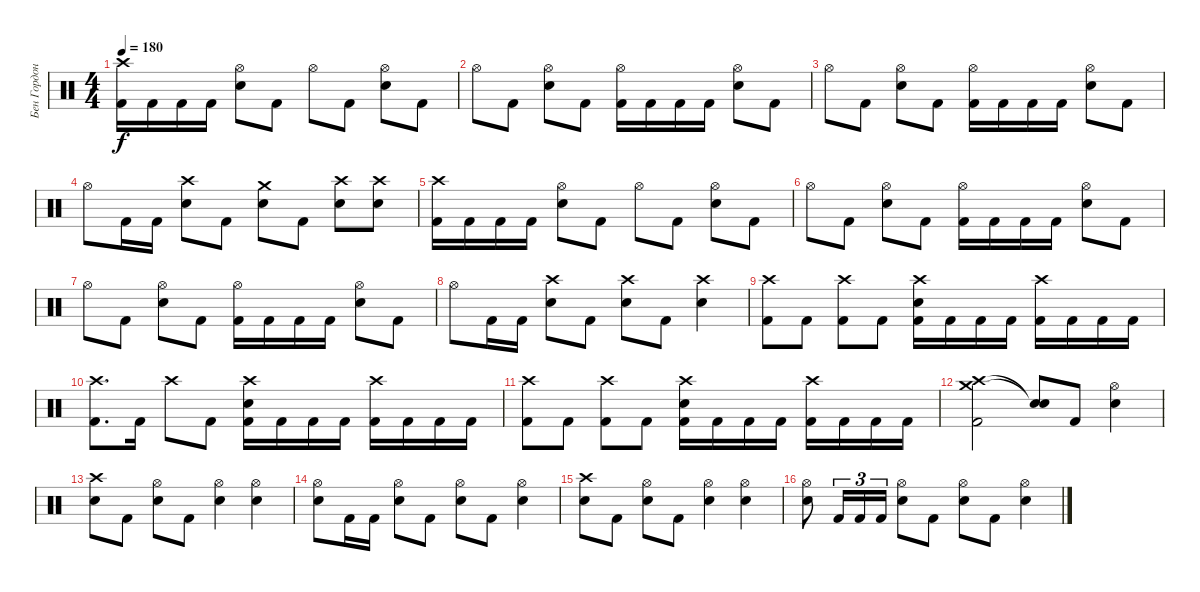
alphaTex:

\track ("Бен Гордон" "Бен Гордон") {instrument percussion}
\staff {score}
\articulation defaults
\ts (4 4)
\tempo 180
\clef neutral
\ks c
("Crash high (hit)" "Kick (hit) 2").16{dy f} "Kick (hit) 2".16 "Kick (hit) 2".16 "Kick (hit) 2".16 ("Hi-Hat (open)" "Electric Snare (hit)").8 "Kick (hit) 2".8 "Hi-Hat (open)".8 "Kick (hit) 2".8 ("Hi-Hat (open)" "Electric Snare (hit)").8 "Kick (hit) 2".8 |
"Hi-Hat (open)".8 "Kick (hit) 2".8 ("Hi-Hat (open)" "Electric Snare (hit)").8 "Kick (hit) 2".8 ("Hi-Hat (open)" "Kick (hit) 2").16 "Kick (hit) 2".16 "Kick (hit) 2".16 "Kick (hit) 2".16 ("Hi-Hat (open)" "Electric Snare (hit)").8 "Kick (hit) 2".8 |
"Hi-Hat (open)".8 "Kick (hit) 2".8 ("Hi-Hat (open)" "Electric Snare (hit)").8 "Kick (hit) 2".8 ("Hi-Hat (open)" "Kick (hit) 2").16 "Kick (hit) 2".16 "Kick (hit) 2".16 "Kick (hit) 2".16 ("Hi-Hat (open)" "Electric Snare (hit)").8 "Kick (hit) 2".8 |
"Hi-Hat (open)".8 "Kick (hit) 2".16 "Kick (hit) 2".16 ("Crash high (hit)" "Electric Snare (hit)").8 "Kick (hit) 2".8 ("Crash medium (hit)" "Electric Snare (hit)").8 "Kick (hit) 2".8 ("Crash high (hit)" "Electric Snare (hit)").8 ("Crash high (hit)" "Electric Snare (hit)").8 |
("Crash high (hit)" "Kick (hit) 2").16 "Kick (hit) 2".16 "Kick (hit) 2".16 "Kick (hit) 2".16 ("Hi-Hat (open)" "Electric Snare (hit)").8 "Kick (hit) 2".8 "Hi-Hat (open)".8 "Kick (hit) 2".8 ("Hi-Hat (open)" "Electric Snare (hit)").8 "Kick (hit) 2".8 |
"Hi-Hat (open)".8 "Kick (hit) 2".8 ("Hi-Hat (open)" "Electric Snare (hit)").8 "Kick (hit) 2".8 ("Hi-Hat (open)" "Kick (hit) 2").16 "Kick (hit) 2".16 "Kick (hit) 2".16 "Kick (hit) 2".16 ("Hi-Hat (open)" "Electric Snare (hit)").8 "Kick (hit) 2".8 |
"Hi-Hat (open)".8 "Kick (hit) 2".8 ("Hi-Hat (open)" "Electric Snare (hit)").8 "Kick (hit) 2".8 ("Hi-Hat (open)" "Kick (hit) 2").16 "Kick (hit) 2".16 "Kick (hit) 2".16 "Kick (hit) 2".16 ("Hi-Hat (open)" "Electric Snare (hit)").8 "Kick (hit) 2".8 |
"Hi-Hat (open)".8 "Kick (hit) 2".16 "Kick (hit) 2".16 ("Crash high (hit)" "Electric Snare (hit)").8 "Kick (hit) 2".8 ("Crash high (hit)" "Electric Snare (hit)").8 "Kick (hit) 2".8 ("Crash high (hit)" "Electric Snare (hit)").4 |
("Crash high (hit)" "Kick (hit) 2").8 "Kick (hit) 2".8 ("Crash high (hit)" "Kick (hit) 2").8 "Kick (hit) 2".8 ("Crash high (hit)" "Electric Snare (hit)" "Kick (hit) 2").16 "Kick (hit) 2".16 "Kick (hit) 2".16 "Kick (hit) 2".16 ("Crash high (hit)" "Kick (hit) 2").16 "Kick (hit) 2".16 "Kick (hit) 2".16 "Kick (hit) 2".16 |
("Crash high (hit)" "Kick (hit) 2").8{d} "Kick (hit) 2".16 "Crash high (hit)".8 "Kick (hit) 2".8 ("Crash high (hit)" "Electric Snare (hit)" "Kick (hit) 2").16 "Kick (hit) 2".16 "Kick (hit) 2".16 "Kick (hit) 2".16 ("Crash high (hit)" "Kick (hit) 2").16 "Kick (hit) 2".16 "Kick (hit) 2".16 "Kick (hit) 2".16 |
("Crash high (hit)" "Kick (hit) 2").8 "Kick (hit) 2".8 ("Crash high (hit)" "Kick (hit) 2").8 "Kick (hit) 2".8 ("Crash high (hit)" "Electric Snare (hit)" "Kick (hit) 2").16 "Kick (hit) 2".16 "Kick (hit) 2".16 "Kick (hit) 2".16 ("Crash high (hit)" "Kick (hit) 2").16 "Kick (hit) 2".16 "Kick (hit) 2".16 "Kick (hit) 2".16 |
("Crash medium (hit)" "Crash high (hit)" "Kick (hit) 2").2 ("Snare (hit)"{t} "Snare (hit)"{t}).8 "Kick (hit) 2".8 ("Hi-Hat (open)" "Electric Snare (hit)").4 |
("Crash high (hit)" "Electric Snare (hit)").8 "Kick (hit) 2".8 ("Hi-Hat (open)" "Electric Snare (hit)").8 "Kick (hit) 2".8 ("Hi-Hat (open)" "Electric Snare (hit)").4 ("Hi-Hat (open)" "Electric Snare (hit)").4 |
("Hi-Hat (open)" "Electric Snare (hit)").8 "Kick (hit) 2".16 "Kick (hit) 2".16 ("Hi-Hat (open)" "Electric Snare (hit)").8 "Kick (hit) 2".8 ("Hi-Hat (open)" "Electric Snare (hit)").8 "Kick (hit) 2".8 ("Hi-Hat (open)" "Electric Snare (hit)").4 |
("Crash high (hit)" "Electric Snare (hit)").8 "Kick (hit) 2".8 ("Hi-Hat (open)" "Electric Snare (hit)").8 "Kick (hit) 2".8 ("Hi-Hat (open)" "Electric Snare (hit)").4 ("Hi-Hat (open)" "Electric Snare (hit)").4 |
("Hi-Hat (open)" "Electric Snare (hit)").8 "Kick (hit) 2".16{tu (3 2)} "Kick (hit) 2".16{tu (3 2)} "Kick (hit) 2".16{tu (3 2)} ("Hi-Hat (open)" "Electric Snare (hit)").8 "Kick (hit) 2".8 ("Hi-Hat (open)" "Electric Snare (hit)").8 "Kick (hit) 2".8 ("Hi-Hat (open)" "Electric Snare (hit)").4
